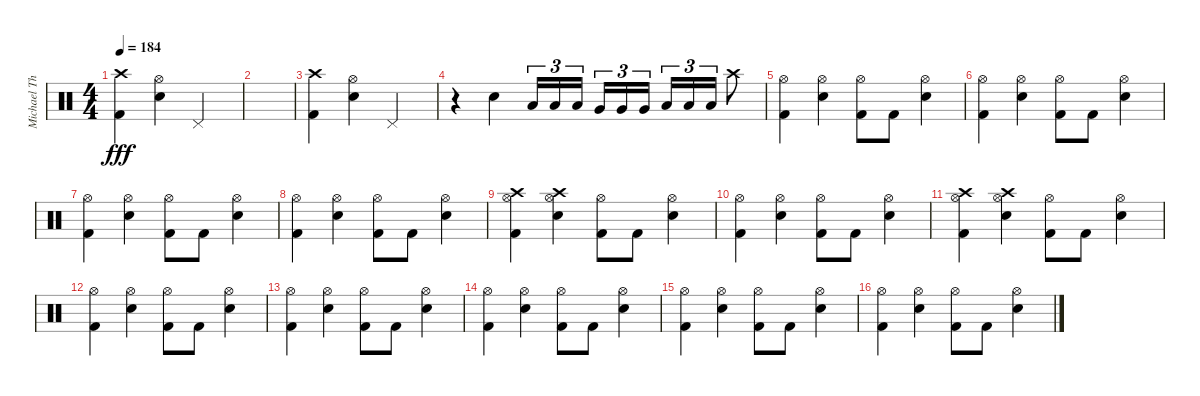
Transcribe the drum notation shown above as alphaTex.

\track ("Michael Thomas - Drums" "Michael Th") {instrument percussion}
\staff {score}
\articulation defaults
\ts (4 4)
\tempo 184
\clef neutral
\ks c
("Crash high (hit)" "Kick (hit) 2").4{dy fff} ("Hi-Hat (open)" "Snare (hit) 2").4 "Pedal Hi-Hat (hit)".2 |
|
("Crash high (hit)" "Kick (hit) 2").4 ("Hi-Hat (open)" "Snare (hit) 2").4 "Pedal Hi-Hat (hit)".2 |
r.4 "Snare (hit) 2".4 "Low Tom (hit)".16{tu (3 2)} "Low Tom (hit)".16{tu (3 2)} "Low Tom (hit)".16{tu (3 2) beam splitsecondary} "Very Low Tom (hit)".16{tu (3 2)} "Very Low Tom (hit)".16{tu (3 2)} "Very Low Tom (hit)".16{tu (3 2)} "Low Floor Tom (hit)".16{tu (3 2)} "Low Floor Tom (hit)".16{tu (3 2)} "Low Floor Tom (hit)".16{tu (3 2)} "Crash high (hit)".8 |
("Hi-Hat (open)" "Kick (hit) 2").4 ("Hi-Hat (open)" "Snare (hit) 2").4 ("Hi-Hat (open)" "Kick (hit) 2").8 "Kick (hit) 2".8 ("Hi-Hat (open)" "Snare (hit) 2").4 |
("Hi-Hat (open)" "Kick (hit) 2").4 ("Hi-Hat (open)" "Snare (hit) 2").4 ("Hi-Hat (open)" "Kick (hit) 2").8 "Kick (hit) 2".8 ("Hi-Hat (open)" "Snare (hit) 2").4 |
("Hi-Hat (open)" "Kick (hit) 2").4 ("Hi-Hat (open)" "Snare (hit) 2").4 ("Hi-Hat (open)" "Kick (hit) 2").8 "Kick (hit) 2".8 ("Hi-Hat (open)" "Snare (hit) 2").4 |
("Hi-Hat (open)" "Kick (hit) 2").4 ("Hi-Hat (open)" "Snare (hit) 2").4 ("Hi-Hat (open)" "Kick (hit) 2").8 "Kick (hit) 2".8 ("Hi-Hat (open)" "Snare (hit) 2").4 |
("Crash high (hit)" "Hi-Hat (open)" "Kick (hit) 2").4 ("Crash high (hit)" "Hi-Hat (open)" "Snare (hit) 2").4 ("Hi-Hat (open)" "Kick (hit) 2").8 "Kick (hit) 2".8 ("Hi-Hat (open)" "Snare (hit) 2").4 |
("Hi-Hat (open)" "Kick (hit) 2").4 ("Hi-Hat (open)" "Snare (hit) 2").4 ("Hi-Hat (open)" "Kick (hit) 2").8 "Kick (hit) 2".8 ("Hi-Hat (open)" "Snare (hit) 2").4 |
("Crash high (hit)" "Hi-Hat (open)" "Kick (hit) 2").4 ("Crash high (hit)" "Hi-Hat (open)" "Snare (hit) 2").4 ("Hi-Hat (open)" "Kick (hit) 2").8 "Kick (hit) 2".8 ("Hi-Hat (open)" "Snare (hit) 2").4 |
("Hi-Hat (open)" "Kick (hit) 2").4 ("Hi-Hat (open)" "Snare (hit) 2").4 ("Hi-Hat (open)" "Kick (hit) 2").8 "Kick (hit) 2".8 ("Hi-Hat (open)" "Snare (hit) 2").4 |
("Hi-Hat (open)" "Kick (hit) 2").4 ("Hi-Hat (open)" "Snare (hit) 2").4 ("Hi-Hat (open)" "Kick (hit) 2").8 "Kick (hit) 2".8 ("Hi-Hat (open)" "Snare (hit) 2").4 |
("Hi-Hat (open)" "Kick (hit) 2").4 ("Hi-Hat (open)" "Snare (hit) 2").4 ("Hi-Hat (open)" "Kick (hit) 2").8 "Kick (hit) 2".8 ("Hi-Hat (open)" "Snare (hit) 2").4 |
("Hi-Hat (open)" "Kick (hit) 2").4 ("Hi-Hat (open)" "Snare (hit) 2").4 ("Hi-Hat (open)" "Kick (hit) 2").8 "Kick (hit) 2".8 ("Hi-Hat (open)" "Snare (hit) 2").4 |
("Hi-Hat (open)" "Kick (hit) 2").4 ("Hi-Hat (open)" "Snare (hit) 2").4 ("Hi-Hat (open)" "Kick (hit) 2").8 "Kick (hit) 2".8 ("Hi-Hat (open)" "Snare (hit) 2").4
